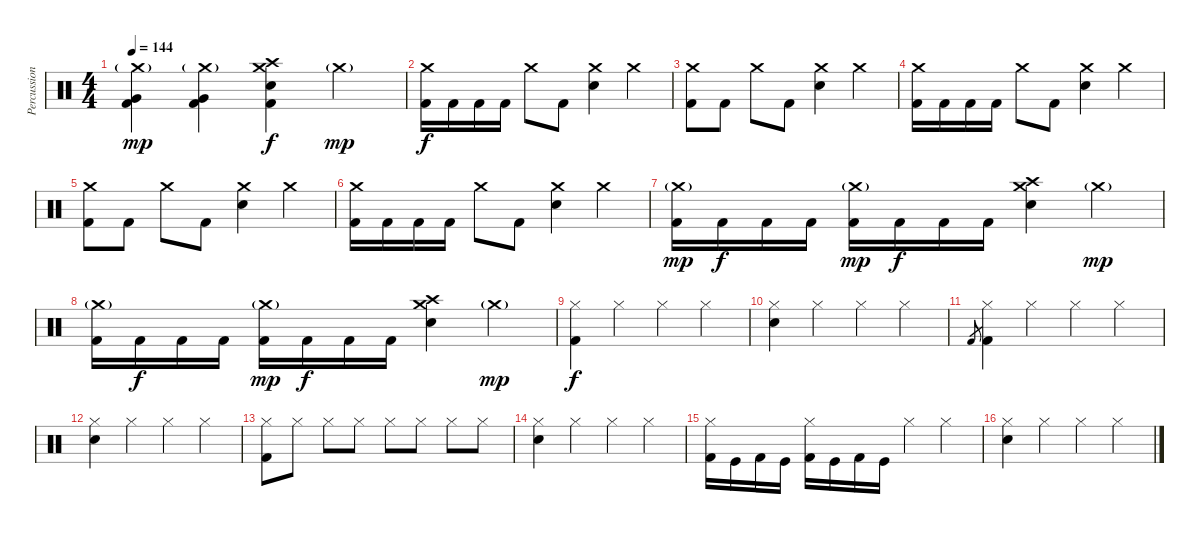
\track ("Percussion" "Percussion") {instrument percussion}
\staff {score}
\articulation defaults
\ts (4 4)
\tempo 144
\clef neutral
\ks c
("Kick (hit) 2" "Very Low Tom (hit)" "Crash medium (hit)"{g}).4{dy mp} ("Kick (hit) 2" "Very Low Tom (hit)" "Crash medium (hit)"{g}).4 ("Electric Snare (hit)" "Kick (hit) 2" "Crash medium (hit)" "Crash high (hit)").4{dy f} "Crash medium (hit)"{g}.4{dy mp} |
("Kick (hit) 2" "Crash medium (hit)").16{dy f} "Kick (hit) 2".16 "Kick (hit) 2".16 "Kick (hit) 2".16 "Crash medium (hit)".8 "Kick (hit) 2".8 ("Electric Snare (hit)" "Crash medium (hit)").4 "Crash medium (hit)".4 |
("Kick (hit) 2" "Crash medium (hit)").8 "Kick (hit) 2".8 "Crash medium (hit)".8 "Kick (hit) 2".8 ("Electric Snare (hit)" "Crash medium (hit)").4 "Crash medium (hit)".4 |
("Kick (hit) 2" "Crash medium (hit)").16 "Kick (hit) 2".16 "Kick (hit) 2".16 "Kick (hit) 2".16 "Crash medium (hit)".8 "Kick (hit) 2".8 ("Electric Snare (hit)" "Crash medium (hit)").4 "Crash medium (hit)".4 |
("Kick (hit) 2" "Crash medium (hit)").8 "Kick (hit) 2".8 "Crash medium (hit)".8 "Kick (hit) 2".8 ("Electric Snare (hit)" "Crash medium (hit)").4 "Crash medium (hit)".4 |
("Kick (hit) 2" "Crash medium (hit)").16 "Kick (hit) 2".16 "Kick (hit) 2".16 "Kick (hit) 2".16 "Crash medium (hit)".8 "Kick (hit) 2".8 ("Electric Snare (hit)" "Crash medium (hit)").4 "Crash medium (hit)".4 |
("Kick (hit) 2" "Crash medium (hit)"{g}).16{dy mp} "Kick (hit) 2".16{dy f} "Kick (hit) 2".16 "Kick (hit) 2".16 ("Kick (hit) 2" "Crash medium (hit)"{g}).16{dy mp} "Kick (hit) 2".16{dy f} "Kick (hit) 2".16 "Kick (hit) 2".16 ("Electric Snare (hit)" "Crash medium (hit)" "Crash high (hit)").4 "Crash medium (hit)"{g}.4{dy mp} |
("Kick (hit) 2" "Crash medium (hit)"{g}).16 "Kick (hit) 2".16{dy f} "Kick (hit) 2".16 "Kick (hit) 2".16 ("Kick (hit) 2" "Crash medium (hit)"{g}).16{dy mp} "Kick (hit) 2".16{dy f} "Kick (hit) 2".16 "Kick (hit) 2".16 ("Electric Snare (hit)" "Crash medium (hit)" "Crash high (hit)").4 "Crash medium (hit)"{g}.4{dy mp} |
("Hi-Hat (closed)" "Kick (hit) 2").4{dy f} "Hi-Hat (closed)".4 "Hi-Hat (closed)".4 "Hi-Hat (closed)".4 |
("Hi-Hat (closed)" "Electric Snare (hit)").4 "Hi-Hat (closed)".4 "Hi-Hat (closed)".4 "Hi-Hat (closed)".4 |
"Kick (hit) 2".8{gr} ("Hi-Hat (closed)" "Kick (hit) 2").4 "Hi-Hat (closed)".4 "Hi-Hat (closed)".4 "Hi-Hat (closed)".4 |
("Hi-Hat (closed)" "Electric Snare (hit)").4 "Hi-Hat (closed)".4 "Hi-Hat (closed)".4 "Hi-Hat (closed)".4 |
("Hi-Hat (closed)" "Kick (hit) 2").8 "Hi-Hat (closed)".8 "Hi-Hat (closed)".8 "Hi-Hat (closed)".8 "Hi-Hat (closed)".8 "Hi-Hat (closed)".8 "Hi-Hat (closed)".8 "Hi-Hat (closed)".8 |
("Hi-Hat (closed)" "Electric Snare (hit)").4 "Hi-Hat (closed)".4 "Hi-Hat (closed)".4 "Hi-Hat (closed)".4 |
("Hi-Hat (closed)" "Kick (hit) 2").16 "Kick (hit)".16 "Kick (hit) 2".16 "Kick (hit)".16 ("Hi-Hat (closed)" "Kick (hit) 2").16 "Kick (hit)".16 "Kick (hit) 2".16 "Kick (hit)".16 "Hi-Hat (closed)".4 "Hi-Hat (closed)".4 |
("Hi-Hat (closed)" "Electric Snare (hit)").4 "Hi-Hat (closed)".4 "Hi-Hat (closed)".4 "Hi-Hat (closed)".4
